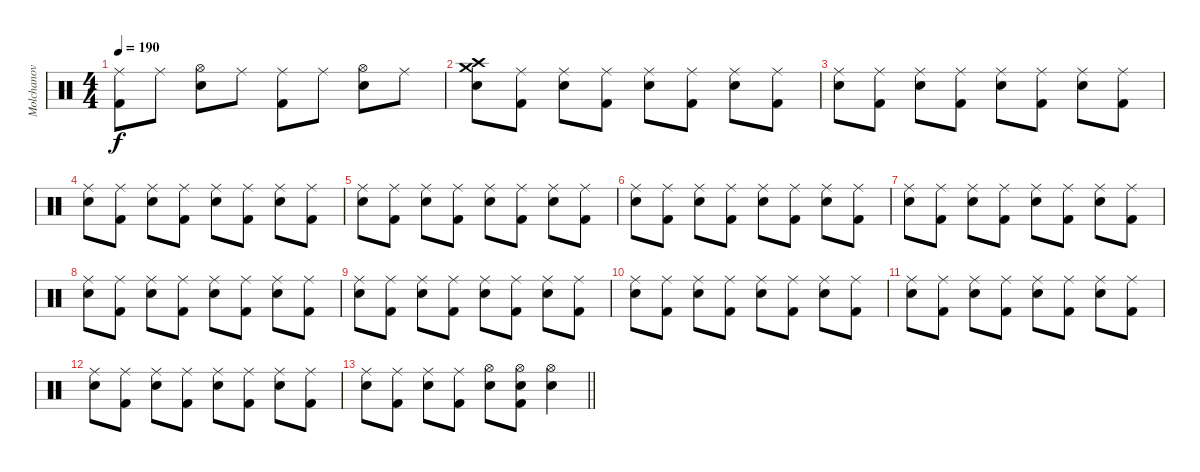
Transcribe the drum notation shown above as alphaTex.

\track ("Molchanov" "Molchanov") {instrument percussion}
\staff {score}
\articulation defaults
\ts (4 4)
\tempo 190
\clef neutral
\ks c
("Ride (middle)" "Kick (hit) 2").8{dy f} "Ride (middle)".8 ("Hi-Hat (open)" "Snare (hit) 2").8 "Ride (middle)".8 ("Ride (middle)" "Kick (hit) 2").8 "Ride (middle)".8 ("Hi-Hat (open)" "Snare (hit) 2").8 "Ride (middle)".8 |
("Crash high (hit)" "Snare (hit) 2" "Crash medium (hit)").8 ("Ride (middle)" "Kick (hit) 2").8 ("Ride (middle)" "Snare (hit) 2").8 ("Ride (middle)" "Kick (hit) 2").8 ("Ride (middle)" "Snare (hit) 2").8 ("Ride (middle)" "Kick (hit) 2").8 ("Ride (middle)" "Snare (hit) 2").8 ("Ride (middle)" "Kick (hit) 2").8 |
("Ride (middle)" "Snare (hit) 2").8 ("Ride (middle)" "Kick (hit) 2").8 ("Ride (middle)" "Snare (hit) 2").8 ("Ride (middle)" "Kick (hit) 2").8 ("Ride (middle)" "Snare (hit) 2").8 ("Ride (middle)" "Kick (hit) 2").8 ("Ride (middle)" "Snare (hit) 2").8 ("Ride (middle)" "Kick (hit) 2").8 |
("Ride (middle)" "Snare (hit) 2").8 ("Ride (middle)" "Kick (hit) 2").8 ("Ride (middle)" "Snare (hit) 2").8 ("Ride (middle)" "Kick (hit) 2").8 ("Ride (middle)" "Snare (hit) 2").8 ("Ride (middle)" "Kick (hit) 2").8 ("Ride (middle)" "Snare (hit) 2").8 ("Ride (middle)" "Kick (hit) 2").8 |
("Ride (middle)" "Snare (hit) 2").8 ("Ride (middle)" "Kick (hit) 2").8 ("Ride (middle)" "Snare (hit) 2").8 ("Ride (middle)" "Kick (hit) 2").8 ("Ride (middle)" "Snare (hit) 2").8 ("Ride (middle)" "Kick (hit) 2").8 ("Ride (middle)" "Snare (hit) 2").8 ("Ride (middle)" "Kick (hit) 2").8 |
("Ride (middle)" "Snare (hit) 2").8 ("Ride (middle)" "Kick (hit) 2").8 ("Ride (middle)" "Snare (hit) 2").8 ("Ride (middle)" "Kick (hit) 2").8 ("Ride (middle)" "Snare (hit) 2").8 ("Ride (middle)" "Kick (hit) 2").8 ("Ride (middle)" "Snare (hit) 2").8 ("Ride (middle)" "Kick (hit) 2").8 |
("Ride (middle)" "Snare (hit) 2").8 ("Ride (middle)" "Kick (hit) 2").8 ("Ride (middle)" "Snare (hit) 2").8 ("Ride (middle)" "Kick (hit) 2").8 ("Ride (middle)" "Snare (hit) 2").8 ("Ride (middle)" "Kick (hit) 2").8 ("Ride (middle)" "Snare (hit) 2").8 ("Ride (middle)" "Kick (hit) 2").8 |
("Ride (middle)" "Snare (hit) 2").8 ("Ride (middle)" "Kick (hit) 2").8 ("Ride (middle)" "Snare (hit) 2").8 ("Ride (middle)" "Kick (hit) 2").8 ("Ride (middle)" "Snare (hit) 2").8 ("Ride (middle)" "Kick (hit) 2").8 ("Ride (middle)" "Snare (hit) 2").8 ("Ride (middle)" "Kick (hit) 2").8 |
("Ride (middle)" "Snare (hit) 2").8 ("Ride (middle)" "Kick (hit) 2").8 ("Ride (middle)" "Snare (hit) 2").8 ("Ride (middle)" "Kick (hit) 2").8 ("Ride (middle)" "Snare (hit) 2").8 ("Ride (middle)" "Kick (hit) 2").8 ("Ride (middle)" "Snare (hit) 2").8 ("Ride (middle)" "Kick (hit) 2").8 |
("Ride (middle)" "Snare (hit) 2").8 ("Ride (middle)" "Kick (hit) 2").8 ("Ride (middle)" "Snare (hit) 2").8 ("Ride (middle)" "Kick (hit) 2").8 ("Ride (middle)" "Snare (hit) 2").8 ("Ride (middle)" "Kick (hit) 2").8 ("Ride (middle)" "Snare (hit) 2").8 ("Ride (middle)" "Kick (hit) 2").8 |
("Ride (middle)" "Snare (hit) 2").8 ("Ride (middle)" "Kick (hit) 2").8 ("Ride (middle)" "Snare (hit) 2").8 ("Ride (middle)" "Kick (hit) 2").8 ("Ride (middle)" "Snare (hit) 2").8 ("Ride (middle)" "Kick (hit) 2").8 ("Ride (middle)" "Snare (hit) 2").8 ("Ride (middle)" "Kick (hit) 2").8 |
("Ride (middle)" "Snare (hit) 2").8 ("Ride (middle)" "Kick (hit) 2").8 ("Ride (middle)" "Snare (hit) 2").8 ("Ride (middle)" "Kick (hit) 2").8 ("Ride (middle)" "Snare (hit) 2").8 ("Ride (middle)" "Kick (hit) 2").8 ("Ride (middle)" "Snare (hit) 2").8 ("Ride (middle)" "Kick (hit) 2").8 |
\barLineRight lightlight
("Ride (middle)" "Snare (hit) 2").8 ("Ride (middle)" "Kick (hit) 2").8 ("Ride (middle)" "Snare (hit) 2").8 ("Ride (middle)" "Kick (hit) 2").8 ("Hi-Hat (open)" "Snare (hit) 2").8 ("Hi-Hat (open)" "Snare (hit) 2" "Kick (hit) 2").8 ("Hi-Hat (open)" "Snare (hit) 2").4
